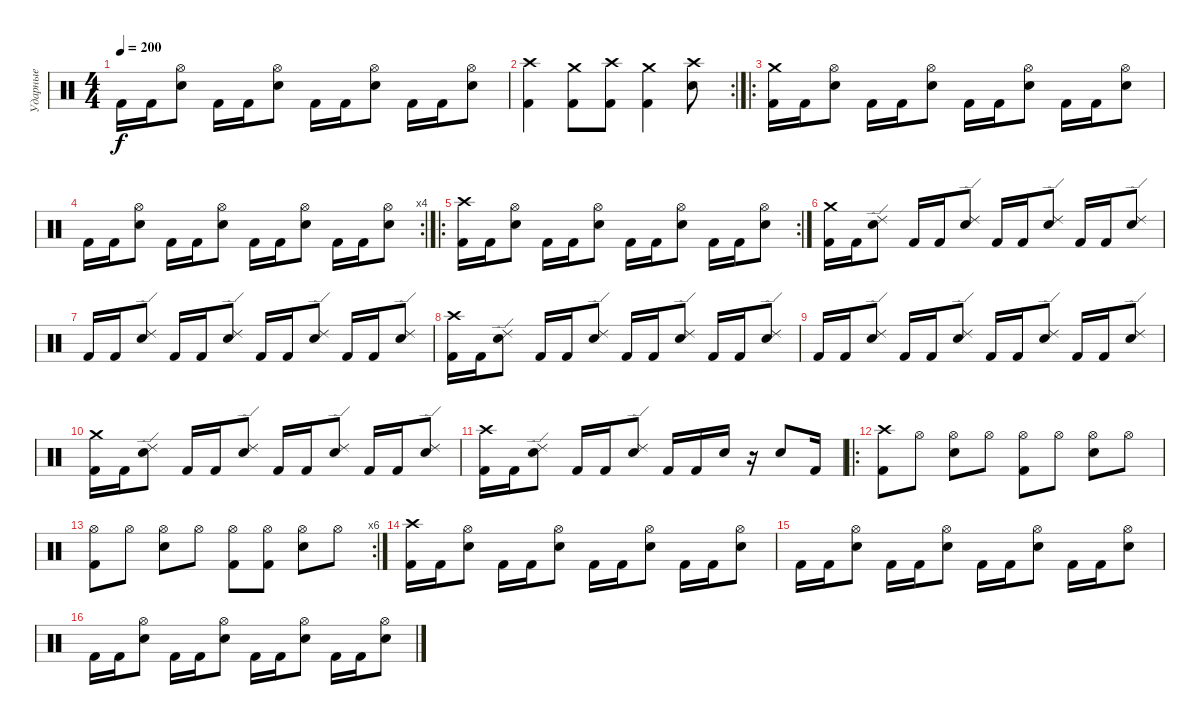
\track ("Ударные" "Ударные") {instrument percussion}
\staff {score}
\articulation defaults
\ts (4 4)
\tempo 200
\clef neutral
\ks c "Kick (hit) 2".16{dy f} "Kick (hit) 2".16
("Hi-Hat (open)" "Electric Snare (hit)").8 "Kick (hit) 2".16 "Kick (hit) 2".16 ("Hi-Hat (open)" "Electric Snare (hit)").8 "Kick (hit) 2".16 "Kick (hit) 2".16 ("Hi-Hat (open)" "Electric Snare (hit)").8 "Kick (hit) 2".16 "Kick (hit) 2".16 ("Hi-Hat (open)" "Electric Snare (hit)").8 |
\rc 2
("Crash high (hit)" "Kick (hit) 2").4 ("Crash medium (hit)" "Kick (hit) 2").8 ("Crash high (hit)" "Kick (hit) 2").8 ("Crash medium (hit)" "Kick (hit) 2").4 ("Crash high (hit)" "Electric Snare (hit)").8 |
\ro
("Crash medium (hit)" "Kick (hit) 2").16 "Kick (hit) 2".16 ("Hi-Hat (open)" "Electric Snare (hit)").8 "Kick (hit) 2".16 "Kick (hit) 2".16 ("Hi-Hat (open)" "Electric Snare (hit)").8 "Kick (hit) 2".16 "Kick (hit) 2".16 ("Hi-Hat (open)" "Electric Snare (hit)").8 "Kick (hit) 2".16 "Kick (hit) 2".16 ("Hi-Hat (open)" "Electric Snare (hit)").8 |
\rc 4 "Kick (hit) 2".16 "Kick (hit) 2".16
("Hi-Hat (open)" "Electric Snare (hit)").8 "Kick (hit) 2".16 "Kick (hit) 2".16 ("Hi-Hat (open)" "Electric Snare (hit)").8 "Kick (hit) 2".16 "Kick (hit) 2".16 ("Hi-Hat (open)" "Electric Snare (hit)").8 "Kick (hit) 2".16 "Kick (hit) 2".16 ("Hi-Hat (open)" "Electric Snare (hit)").8 |
\ro
\rc 2
("Crash high (hit)" "Kick (hit) 2").16 "Kick (hit) 2".16 ("Hi-Hat (open)" "Electric Snare (hit)").8 "Kick (hit) 2".16 "Kick (hit) 2".16 ("Hi-Hat (open)" "Electric Snare (hit)").8 "Kick (hit) 2".16 "Kick (hit) 2".16 ("Hi-Hat (open)" "Electric Snare (hit)").8 "Kick (hit) 2".16 "Kick (hit) 2".16 ("Hi-Hat (open)" "Electric Snare (hit)").8 |
("Crash medium (hit)" "Kick (hit) 2").16 "Kick (hit) 2".16 ("Ride (edge) 2" "Electric Snare (hit)").8 "Kick (hit) 2".16 "Kick (hit) 2".16 ("Ride (edge) 2" "Electric Snare (hit)").8 "Kick (hit) 2".16 "Kick (hit) 2".16 ("Ride (edge) 2" "Electric Snare (hit)").8 "Kick (hit) 2".16 "Kick (hit) 2".16 ("Ride (edge) 2" "Electric Snare (hit)").8 |
"Kick (hit) 2".16 "Kick (hit) 2".16 ("Ride (edge) 2" "Electric Snare (hit)").8 "Kick (hit) 2".16 "Kick (hit) 2".16 ("Ride (edge) 2" "Electric Snare (hit)").8 "Kick (hit) 2".16 "Kick (hit) 2".16 ("Ride (edge) 2" "Electric Snare (hit)").8 "Kick (hit) 2".16 "Kick (hit) 2".16 ("Ride (edge) 2" "Electric Snare (hit)").8 |
("Crash high (hit)" "Kick (hit) 2").16 "Kick (hit) 2".16 ("Ride (edge) 2" "Electric Snare (hit)").8 "Kick (hit) 2".16 "Kick (hit) 2".16 ("Ride (edge) 2" "Electric Snare (hit)").8 "Kick (hit) 2".16 "Kick (hit) 2".16 ("Ride (edge) 2" "Electric Snare (hit)").8 "Kick (hit) 2".16 "Kick (hit) 2".16 ("Ride (edge) 2" "Electric Snare (hit)").8 |
"Kick (hit) 2".16 "Kick (hit) 2".16 ("Ride (edge) 2" "Electric Snare (hit)").8 "Kick (hit) 2".16 "Kick (hit) 2".16 ("Ride (edge) 2" "Electric Snare (hit)").8 "Kick (hit) 2".16 "Kick (hit) 2".16 ("Ride (edge) 2" "Electric Snare (hit)").8 "Kick (hit) 2".16 "Kick (hit) 2".16 ("Ride (edge) 2" "Electric Snare (hit)").8 |
("Crash medium (hit)" "Kick (hit) 2").16 "Kick (hit) 2".16 ("Ride (edge) 2" "Electric Snare (hit)").8 "Kick (hit) 2".16 "Kick (hit) 2".16 ("Ride (edge) 2" "Electric Snare (hit)").8 "Kick (hit) 2".16 "Kick (hit) 2".16 ("Ride (edge) 2" "Electric Snare (hit)").8 "Kick (hit) 2".16 "Kick (hit) 2".16 ("Ride (edge) 2" "Electric Snare (hit)").8 |
("Crash high (hit)" "Kick (hit) 2").16 "Kick (hit) 2".16 ("Ride (edge) 2" "Electric Snare (hit)").8 "Kick (hit) 2".16 "Kick (hit) 2".16 ("Ride (edge) 2" "Electric Snare (hit)").8 "Kick (hit) 2".16 "Kick (hit) 2".16 "Electric Snare (hit)".16 r.16 "Electric Snare (hit)".8 "Kick (hit) 2".16 |
\ro
("Crash high (hit)" "Kick (hit) 2").8 "Hi-Hat (open)".8 ("Hi-Hat (open)" "Electric Snare (hit)").8 "Hi-Hat (open)".8 ("Hi-Hat (open)" "Kick (hit) 2").8 "Hi-Hat (open)".8 ("Hi-Hat (open)" "Electric Snare (hit)").8 "Hi-Hat (open)".8 |
\rc 6
("Hi-Hat (open)" "Kick (hit) 2").8 "Hi-Hat (open)".8 ("Hi-Hat (open)" "Electric Snare (hit)").8 "Hi-Hat (open)".8 ("Hi-Hat (open)" "Kick (hit) 2").8 ("Hi-Hat (open)" "Kick (hit) 2").8 ("Hi-Hat (open)" "Electric Snare (hit)").8 "Hi-Hat (open)".8 |
("Crash high (hit)" "Kick (hit) 2").16 "Kick (hit) 2".16 ("Hi-Hat (open)" "Electric Snare (hit)").8 "Kick (hit) 2".16 "Kick (hit) 2".16 ("Hi-Hat (open)" "Electric Snare (hit)").8 "Kick (hit) 2".16 "Kick (hit) 2".16 ("Hi-Hat (open)" "Electric Snare (hit)").8 "Kick (hit) 2".16 "Kick (hit) 2".16 ("Hi-Hat (open)" "Electric Snare (hit)").8 |
"Kick (hit) 2".16 "Kick (hit) 2".16 ("Hi-Hat (open)" "Electric Snare (hit)").8 "Kick (hit) 2".16 "Kick (hit) 2".16 ("Hi-Hat (open)" "Electric Snare (hit)").8 "Kick (hit) 2".16 "Kick (hit) 2".16 ("Hi-Hat (open)" "Electric Snare (hit)").8 "Kick (hit) 2".16 "Kick (hit) 2".16 ("Hi-Hat (open)" "Electric Snare (hit)").8 |
"Kick (hit) 2".16 "Kick (hit) 2".16 ("Hi-Hat (open)" "Electric Snare (hit)").8 "Kick (hit) 2".16 "Kick (hit) 2".16 ("Hi-Hat (open)" "Electric Snare (hit)").8 "Kick (hit) 2".16 "Kick (hit) 2".16 ("Hi-Hat (open)" "Electric Snare (hit)").8 "Kick (hit) 2".16 "Kick (hit) 2".16 ("Hi-Hat (open)" "Electric Snare (hit)").8
